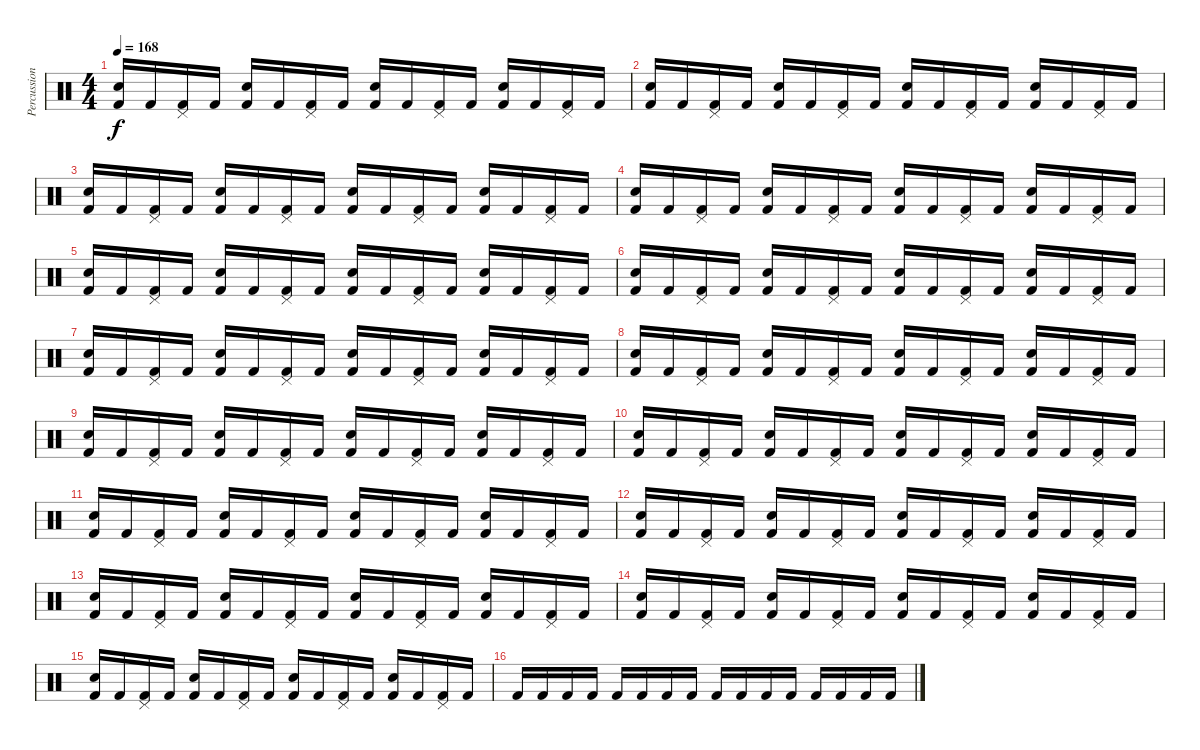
\track ("Percussion" "Percussion") {instrument percussion}
\staff {score}
\articulation defaults
\ts (4 4)
\tempo 168
\clef neutral
\ks c
("Electric Snare (hit)" "Kick (hit) 2").16{dy f} "Kick (hit) 2".16 ("Pedal Hi-Hat (hit)" "Kick (hit) 2").16 "Kick (hit) 2".16 ("Electric Snare (hit)" "Kick (hit) 2").16 "Kick (hit) 2".16 ("Pedal Hi-Hat (hit)" "Kick (hit) 2").16 "Kick (hit) 2".16 ("Electric Snare (hit)" "Kick (hit) 2").16 "Kick (hit) 2".16 ("Pedal Hi-Hat (hit)" "Kick (hit) 2").16 "Kick (hit) 2".16 ("Electric Snare (hit)" "Kick (hit) 2").16 "Kick (hit) 2".16 ("Pedal Hi-Hat (hit)" "Kick (hit) 2").16 "Kick (hit) 2".16 |
("Electric Snare (hit)" "Kick (hit) 2").16 "Kick (hit) 2".16 ("Pedal Hi-Hat (hit)" "Kick (hit) 2").16 "Kick (hit) 2".16 ("Electric Snare (hit)" "Kick (hit) 2").16 "Kick (hit) 2".16 ("Pedal Hi-Hat (hit)" "Kick (hit) 2").16 "Kick (hit) 2".16 ("Electric Snare (hit)" "Kick (hit) 2").16 "Kick (hit) 2".16 ("Pedal Hi-Hat (hit)" "Kick (hit) 2").16 "Kick (hit) 2".16 ("Electric Snare (hit)" "Kick (hit) 2").16 "Kick (hit) 2".16 ("Pedal Hi-Hat (hit)" "Kick (hit) 2").16 "Kick (hit) 2".16 |
("Electric Snare (hit)" "Kick (hit) 2").16 "Kick (hit) 2".16 ("Pedal Hi-Hat (hit)" "Kick (hit) 2").16 "Kick (hit) 2".16 ("Electric Snare (hit)" "Kick (hit) 2").16 "Kick (hit) 2".16 ("Pedal Hi-Hat (hit)" "Kick (hit) 2").16 "Kick (hit) 2".16 ("Electric Snare (hit)" "Kick (hit) 2").16 "Kick (hit) 2".16 ("Pedal Hi-Hat (hit)" "Kick (hit) 2").16 "Kick (hit) 2".16 ("Electric Snare (hit)" "Kick (hit) 2").16 "Kick (hit) 2".16 ("Pedal Hi-Hat (hit)" "Kick (hit) 2").16 "Kick (hit) 2".16 |
("Electric Snare (hit)" "Kick (hit) 2").16 "Kick (hit) 2".16 ("Pedal Hi-Hat (hit)" "Kick (hit) 2").16 "Kick (hit) 2".16 ("Electric Snare (hit)" "Kick (hit) 2").16 "Kick (hit) 2".16 ("Pedal Hi-Hat (hit)" "Kick (hit) 2").16 "Kick (hit) 2".16 ("Electric Snare (hit)" "Kick (hit) 2").16 "Kick (hit) 2".16 ("Pedal Hi-Hat (hit)" "Kick (hit) 2").16 "Kick (hit) 2".16 ("Electric Snare (hit)" "Kick (hit) 2").16 "Kick (hit) 2".16 ("Pedal Hi-Hat (hit)" "Kick (hit) 2").16 "Kick (hit) 2".16 |
("Electric Snare (hit)" "Kick (hit) 2").16 "Kick (hit) 2".16 ("Pedal Hi-Hat (hit)" "Kick (hit) 2").16 "Kick (hit) 2".16 ("Electric Snare (hit)" "Kick (hit) 2").16 "Kick (hit) 2".16 ("Pedal Hi-Hat (hit)" "Kick (hit) 2").16 "Kick (hit) 2".16 ("Electric Snare (hit)" "Kick (hit) 2").16 "Kick (hit) 2".16 ("Pedal Hi-Hat (hit)" "Kick (hit) 2").16 "Kick (hit) 2".16 ("Electric Snare (hit)" "Kick (hit) 2").16 "Kick (hit) 2".16 ("Pedal Hi-Hat (hit)" "Kick (hit) 2").16 "Kick (hit) 2".16 |
("Electric Snare (hit)" "Kick (hit) 2").16 "Kick (hit) 2".16 ("Pedal Hi-Hat (hit)" "Kick (hit) 2").16 "Kick (hit) 2".16 ("Electric Snare (hit)" "Kick (hit) 2").16 "Kick (hit) 2".16 ("Pedal Hi-Hat (hit)" "Kick (hit) 2").16 "Kick (hit) 2".16 ("Electric Snare (hit)" "Kick (hit) 2").16 "Kick (hit) 2".16 ("Pedal Hi-Hat (hit)" "Kick (hit) 2").16 "Kick (hit) 2".16 ("Electric Snare (hit)" "Kick (hit) 2").16 "Kick (hit) 2".16 ("Pedal Hi-Hat (hit)" "Kick (hit) 2").16 "Kick (hit) 2".16 |
("Electric Snare (hit)" "Kick (hit) 2").16 "Kick (hit) 2".16 ("Pedal Hi-Hat (hit)" "Kick (hit) 2").16 "Kick (hit) 2".16 ("Electric Snare (hit)" "Kick (hit) 2").16 "Kick (hit) 2".16 ("Pedal Hi-Hat (hit)" "Kick (hit) 2").16 "Kick (hit) 2".16 ("Electric Snare (hit)" "Kick (hit) 2").16 "Kick (hit) 2".16 ("Pedal Hi-Hat (hit)" "Kick (hit) 2").16 "Kick (hit) 2".16 ("Electric Snare (hit)" "Kick (hit) 2").16 "Kick (hit) 2".16 ("Pedal Hi-Hat (hit)" "Kick (hit) 2").16 "Kick (hit) 2".16 |
("Electric Snare (hit)" "Kick (hit) 2").16 "Kick (hit) 2".16 ("Pedal Hi-Hat (hit)" "Kick (hit) 2").16 "Kick (hit) 2".16 ("Electric Snare (hit)" "Kick (hit) 2").16 "Kick (hit) 2".16 ("Pedal Hi-Hat (hit)" "Kick (hit) 2").16 "Kick (hit) 2".16 ("Electric Snare (hit)" "Kick (hit) 2").16 "Kick (hit) 2".16 ("Pedal Hi-Hat (hit)" "Kick (hit) 2").16 "Kick (hit) 2".16 ("Electric Snare (hit)" "Kick (hit) 2").16 "Kick (hit) 2".16 ("Pedal Hi-Hat (hit)" "Kick (hit) 2").16 "Kick (hit) 2".16 |
("Electric Snare (hit)" "Kick (hit) 2").16 "Kick (hit) 2".16 ("Pedal Hi-Hat (hit)" "Kick (hit) 2").16 "Kick (hit) 2".16 ("Electric Snare (hit)" "Kick (hit) 2").16 "Kick (hit) 2".16 ("Pedal Hi-Hat (hit)" "Kick (hit) 2").16 "Kick (hit) 2".16 ("Electric Snare (hit)" "Kick (hit) 2").16 "Kick (hit) 2".16 ("Pedal Hi-Hat (hit)" "Kick (hit) 2").16 "Kick (hit) 2".16 ("Electric Snare (hit)" "Kick (hit) 2").16 "Kick (hit) 2".16 ("Pedal Hi-Hat (hit)" "Kick (hit) 2").16 "Kick (hit) 2".16 |
("Electric Snare (hit)" "Kick (hit) 2").16 "Kick (hit) 2".16 ("Pedal Hi-Hat (hit)" "Kick (hit) 2").16 "Kick (hit) 2".16 ("Electric Snare (hit)" "Kick (hit) 2").16 "Kick (hit) 2".16 ("Pedal Hi-Hat (hit)" "Kick (hit) 2").16 "Kick (hit) 2".16 ("Electric Snare (hit)" "Kick (hit) 2").16 "Kick (hit) 2".16 ("Pedal Hi-Hat (hit)" "Kick (hit) 2").16 "Kick (hit) 2".16 ("Electric Snare (hit)" "Kick (hit) 2").16 "Kick (hit) 2".16 ("Pedal Hi-Hat (hit)" "Kick (hit) 2").16 "Kick (hit) 2".16 |
("Electric Snare (hit)" "Kick (hit) 2").16 "Kick (hit) 2".16 ("Pedal Hi-Hat (hit)" "Kick (hit) 2").16 "Kick (hit) 2".16 ("Electric Snare (hit)" "Kick (hit) 2").16 "Kick (hit) 2".16 ("Pedal Hi-Hat (hit)" "Kick (hit) 2").16 "Kick (hit) 2".16 ("Electric Snare (hit)" "Kick (hit) 2").16 "Kick (hit) 2".16 ("Pedal Hi-Hat (hit)" "Kick (hit) 2").16 "Kick (hit) 2".16 ("Electric Snare (hit)" "Kick (hit) 2").16 "Kick (hit) 2".16 ("Pedal Hi-Hat (hit)" "Kick (hit) 2").16 "Kick (hit) 2".16 |
("Electric Snare (hit)" "Kick (hit) 2").16 "Kick (hit) 2".16 ("Pedal Hi-Hat (hit)" "Kick (hit) 2").16 "Kick (hit) 2".16 ("Electric Snare (hit)" "Kick (hit) 2").16 "Kick (hit) 2".16 ("Pedal Hi-Hat (hit)" "Kick (hit) 2").16 "Kick (hit) 2".16 ("Electric Snare (hit)" "Kick (hit) 2").16 "Kick (hit) 2".16 ("Pedal Hi-Hat (hit)" "Kick (hit) 2").16 "Kick (hit) 2".16 ("Electric Snare (hit)" "Kick (hit) 2").16 "Kick (hit) 2".16 ("Pedal Hi-Hat (hit)" "Kick (hit) 2").16 "Kick (hit) 2".16 |
("Electric Snare (hit)" "Kick (hit) 2").16 "Kick (hit) 2".16 ("Pedal Hi-Hat (hit)" "Kick (hit) 2").16 "Kick (hit) 2".16 ("Electric Snare (hit)" "Kick (hit) 2").16 "Kick (hit) 2".16 ("Pedal Hi-Hat (hit)" "Kick (hit) 2").16 "Kick (hit) 2".16 ("Electric Snare (hit)" "Kick (hit) 2").16 "Kick (hit) 2".16 ("Pedal Hi-Hat (hit)" "Kick (hit) 2").16 "Kick (hit) 2".16 ("Electric Snare (hit)" "Kick (hit) 2").16 "Kick (hit) 2".16 ("Pedal Hi-Hat (hit)" "Kick (hit) 2").16 "Kick (hit) 2".16 |
("Electric Snare (hit)" "Kick (hit) 2").16 "Kick (hit) 2".16 ("Pedal Hi-Hat (hit)" "Kick (hit) 2").16 "Kick (hit) 2".16 ("Electric Snare (hit)" "Kick (hit) 2").16 "Kick (hit) 2".16 ("Pedal Hi-Hat (hit)" "Kick (hit) 2").16 "Kick (hit) 2".16 ("Electric Snare (hit)" "Kick (hit) 2").16 "Kick (hit) 2".16 ("Pedal Hi-Hat (hit)" "Kick (hit) 2").16 "Kick (hit) 2".16 ("Electric Snare (hit)" "Kick (hit) 2").16 "Kick (hit) 2".16 ("Pedal Hi-Hat (hit)" "Kick (hit) 2").16 "Kick (hit) 2".16 |
("Electric Snare (hit)" "Kick (hit) 2").16 "Kick (hit) 2".16 ("Pedal Hi-Hat (hit)" "Kick (hit) 2").16 "Kick (hit) 2".16 ("Electric Snare (hit)" "Kick (hit) 2").16 "Kick (hit) 2".16 ("Pedal Hi-Hat (hit)" "Kick (hit) 2").16 "Kick (hit) 2".16 ("Electric Snare (hit)" "Kick (hit) 2").16 "Kick (hit) 2".16 ("Pedal Hi-Hat (hit)" "Kick (hit) 2").16 "Kick (hit) 2".16 ("Electric Snare (hit)" "Kick (hit) 2").16 "Kick (hit) 2".16 ("Pedal Hi-Hat (hit)" "Kick (hit) 2").16 "Kick (hit) 2".16 |
"Kick (hit) 2".16 "Kick (hit) 2".16 "Kick (hit) 2".16 "Kick (hit) 2".16 "Kick (hit) 2".16 "Kick (hit) 2".16 "Kick (hit) 2".16 "Kick (hit) 2".16 "Kick (hit) 2".16 "Kick (hit) 2".16 "Kick (hit) 2".16 "Kick (hit) 2".16 "Kick (hit) 2".16 "Kick (hit) 2".16 "Kick (hit) 2".16 "Kick (hit) 2".16
